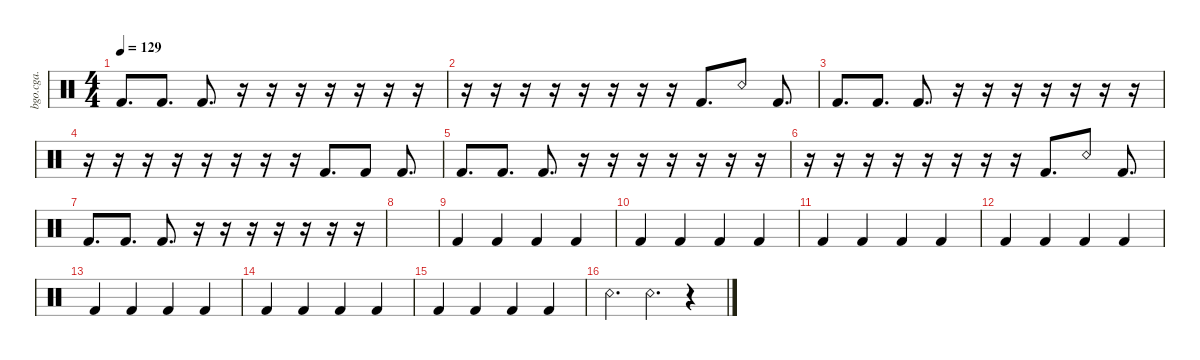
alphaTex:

\defaultSystemsLayout 4
\hideDynamics
\bracketExtendMode nobrackets
\otherSystemsTrackNameOrientation horizontal
\track ("Heiko's percussion" "bgo.cga.") {instrument percussion}
\staff {score}
\articulation defaults
\ts (4 4)
\tempo 129
\clef neutral
\ks c "Kick (hit) 2".8{d dy mf} "Kick (hit) 2".8{d} "Kick (hit) 2".8{d}
r.16 r.16 r.16 r.16 r.16 r.16 r.16 |
r.16 r.16 r.16 r.16 r.16 r.16 r.16 r.16 "Kick (hit) 2".8{d} "Snare (rim shot)".8 "Kick (hit) 2".8{d} |
"Kick (hit) 2".8{d} "Kick (hit) 2".8{d} "Kick (hit) 2".8{d} r.16 r.16 r.16 r.16 r.16 r.16 r.16 |
r.16 r.16 r.16 r.16 r.16 r.16 r.16 r.16 "Kick (hit) 2".8{d} "Kick (hit) 2".8 "Kick (hit) 2".8{d} |
"Kick (hit) 2".8{d} "Kick (hit) 2".8{d} "Kick (hit) 2".8{d} r.16 r.16 r.16 r.16 r.16 r.16 r.16 |
r.16 r.16 r.16 r.16 r.16 r.16 r.16 r.16 "Kick (hit) 2".8{d} "Snare (rim shot)".8 "Kick (hit) 2".8{d} |
"Kick (hit) 2".8{d} "Kick (hit) 2".8{d} "Kick (hit) 2".8{d} r.16 r.16 r.16 r.16 r.16 r.16 r.16 |
|
"Kick (hit) 2".4{dy mp} "Kick (hit) 2".4 "Kick (hit) 2".4 "Kick (hit) 2".4 |
"Kick (hit) 2".4 "Kick (hit) 2".4 "Kick (hit) 2".4 "Kick (hit) 2".4 |
"Kick (hit) 2".4 "Kick (hit) 2".4 "Kick (hit) 2".4 "Kick (hit) 2".4 |
"Kick (hit) 2".4 "Kick (hit) 2".4 "Kick (hit) 2".4 "Kick (hit) 2".4 |
"Kick (hit) 2".4 "Kick (hit) 2".4 "Kick (hit) 2".4 "Kick (hit) 2".4 |
"Kick (hit) 2".4 "Kick (hit) 2".4 "Kick (hit) 2".4 "Kick (hit) 2".4 |
"Kick (hit) 2".4 "Kick (hit) 2".4 "Kick (hit) 2".4 "Kick (hit) 2".4 |
"Snare (rim shot)".4{d dy mf} "Snare (rim shot)".4{d} r.4
